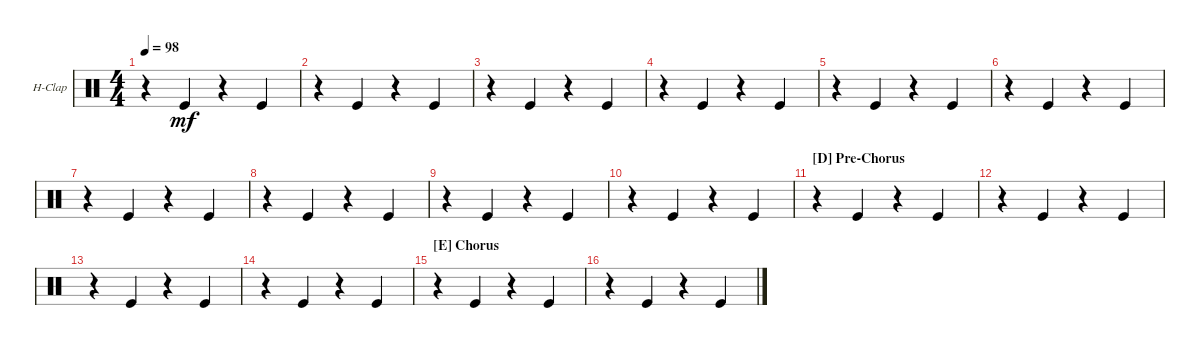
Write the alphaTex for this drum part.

\defaultSystemsLayout 4
\bracketExtendMode groupsimilarinstruments
\firstSystemTrackNameOrientation horizontal
\otherSystemsTrackNameOrientation horizontal
\track ("Hand Clap" "H-Clap") {instrument percussion}
\staff {score}
\articulation defaults
\ts (4 4)
\tempo 98
\clef neutral
\ks c
r.4{dy mf} "Kick (hit)".4 r.4 "Kick (hit)".4 |
r.4 "Kick (hit)".4 r.4 "Kick (hit)".4 |
r.4 "Kick (hit)".4 r.4 "Kick (hit)".4 |
r.4 "Kick (hit)".4 r.4 "Kick (hit)".4 |
r.4 "Kick (hit)".4 r.4 "Kick (hit)".4 |
r.4 "Kick (hit)".4 r.4 "Kick (hit)".4 |
r.4 "Kick (hit)".4 r.4 "Kick (hit)".4 |
r.4 "Kick (hit)".4 r.4 "Kick (hit)".4 |
r.4 "Kick (hit)".4 r.4 "Kick (hit)".4 |
r.4 "Kick (hit)".4 r.4 "Kick (hit)".4 |
\section ("D" "Pre-Chorus")
r.4 "Kick (hit)".4 r.4 "Kick (hit)".4 |
r.4 "Kick (hit)".4 r.4 "Kick (hit)".4 |
r.4 "Kick (hit)".4 r.4 "Kick (hit)".4 |
r.4 "Kick (hit)".4 r.4 "Kick (hit)".4 |
\section ("E" "Chorus")
r.4 "Kick (hit)".4 r.4 "Kick (hit)".4 |
r.4 "Kick (hit)".4 r.4 "Kick (hit)".4
